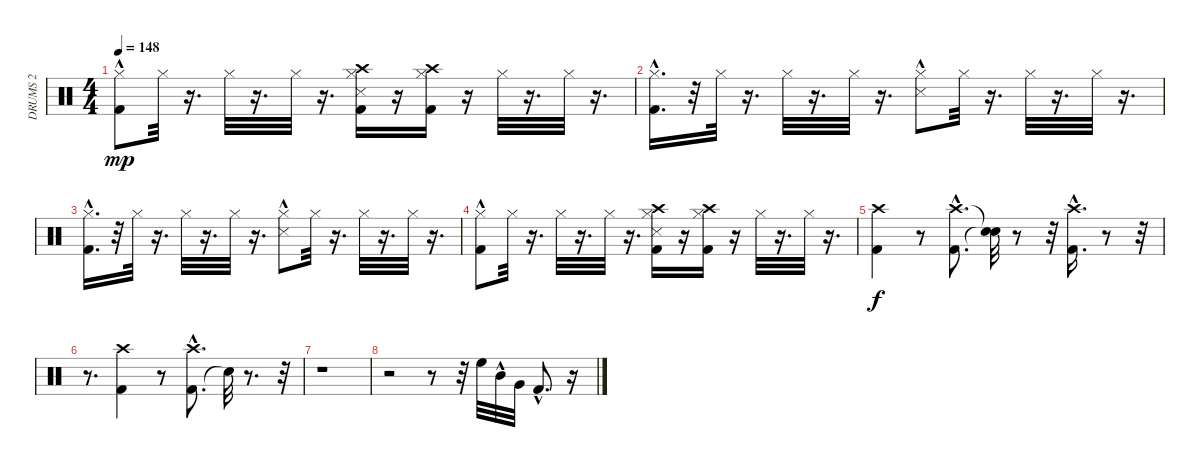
\track ("DRUMS 2" "DRUMS 2") {instrument percussion}
\staff {score}
\articulation defaults
\ts (4 4)
\tempo 148
\clef neutral
\ks c
("Kick (hit) 2"{hac} "Hi-Hat (closed)").8{dy mp} "Hi-Hat (closed)".32 r.16{d} "Hi-Hat (closed)".32 r.16{d} "Hi-Hat (closed)".32 r.16{d} ("Snare (side stick) 3" "Kick (hit) 2" "Hi-Hat (closed)" "Crash high (hit)").16 r.16 ("Kick (hit) 2" "Hi-Hat (closed)" "Crash high (hit)").16 r.16 "Hi-Hat (closed)".32 r.16{d} "Hi-Hat (closed)".32 r.16{d} |
("Kick (hit) 2"{hac} "Hi-Hat (closed)").16{d} r.32 "Hi-Hat (closed)".32 r.16{d} "Hi-Hat (closed)".32 r.16{d} "Hi-Hat (closed)".32 r.16{d} ("Snare (side stick) 3"{hac} "Hi-Hat (closed)").8 "Hi-Hat (closed)".32 r.16{d} "Hi-Hat (closed)".32 r.16{d} "Hi-Hat (closed)".32 r.16{d} |
("Kick (hit) 2"{hac} "Hi-Hat (closed)").16{d} r.32 "Hi-Hat (closed)".32 r.16{d} "Hi-Hat (closed)".32 r.16{d} "Hi-Hat (closed)".32 r.16{d} ("Snare (side stick) 3"{hac} "Hi-Hat (closed)").8 "Hi-Hat (closed)".32 r.16{d} "Hi-Hat (closed)".32 r.16{d} "Hi-Hat (closed)".32 r.16{d} |
("Kick (hit) 2"{hac} "Hi-Hat (closed)").8 "Hi-Hat (closed)".32 r.16{d} "Hi-Hat (closed)".32 r.16{d} "Hi-Hat (closed)".32 r.16{d} ("Snare (side stick) 3" "Kick (hit) 2" "Hi-Hat (closed)" "Crash high (hit)").16 r.16 ("Kick (hit) 2" "Hi-Hat (closed)" "Crash high (hit)").16 r.16 "Hi-Hat (closed)".32 r.16{d} "Hi-Hat (closed)".32 r.16{d} |
("Kick (hit) 2" "Crash high (hit)").4{dy f} r.8 ("Kick (hit) 2"{hac} "Crash high (hit)"{hac}).8{d} ("Snare (hit)"{t} "Snare (hit)"{t}).32 r.8 r.32 ("Kick (hit) 2"{hac} "Crash high (hit)"{hac}).16{d} r.8 r.32 |
r.8{d} ("Kick (hit) 2" "Crash high (hit)").4 r.8 ("Kick (hit) 2"{hac} "Crash high (hit)").8{d} "Snare (hit)"{t}.32 r.8{d} r.32 |
r.1 |
r.2 r.8 r.32 "High Floor Tom (hit)".32 "Mid Tom (hit)"{hac}.32 "Very Low Tom (hit)".32 "Kick (hit) 2"{hac}.8{d} r.16
